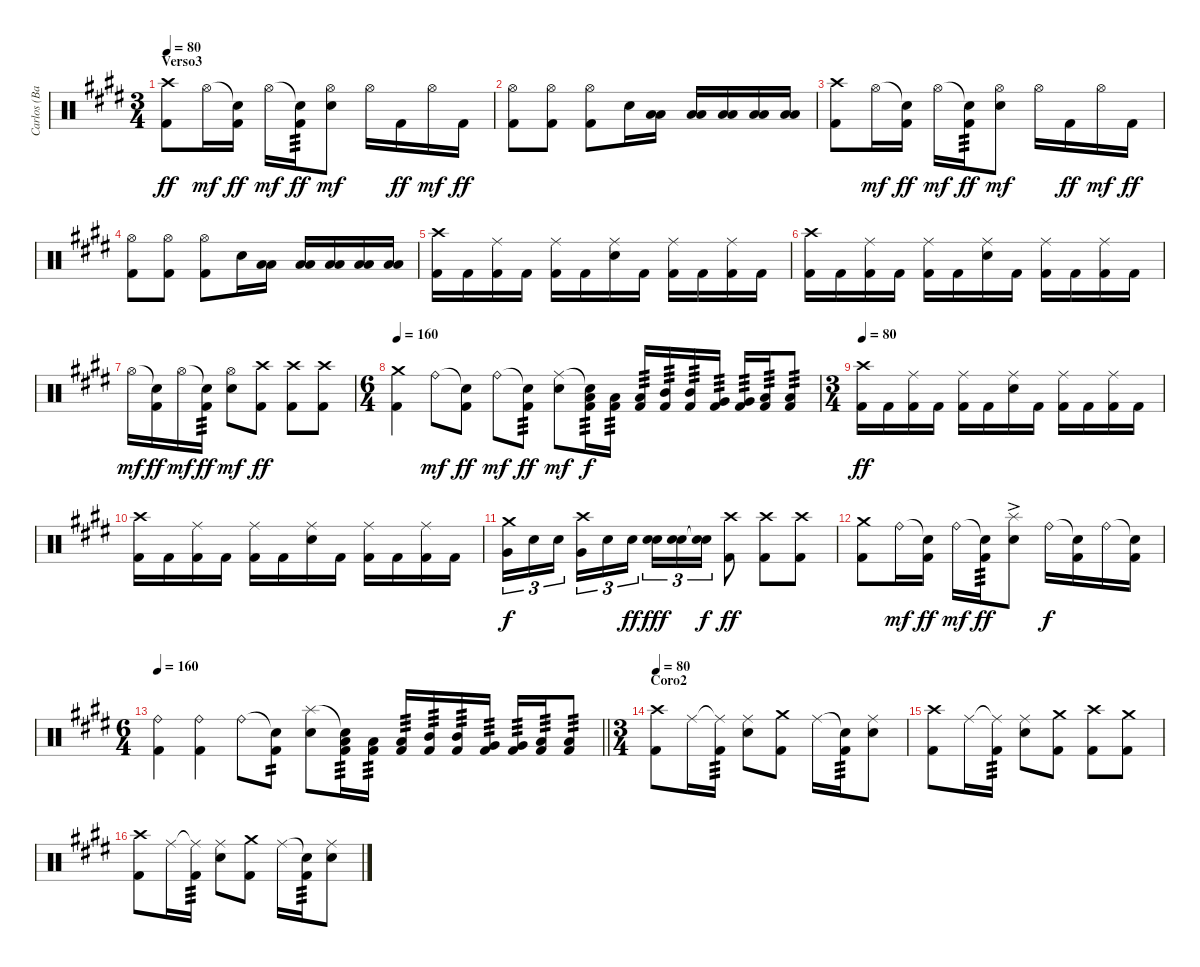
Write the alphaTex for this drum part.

\track ("Carlos (Batería)" "Carlos (Ba") {instrument percussion}
\staff
\articulation defaults
\ts (3 4)
\section ("" "Verso3")
\tempo 80
\clef neutral
\ks c#minor
("Crash high (hit)" "Kick (hit) 2").8{dy ff} "Hi-Hat (open)".16{dy mf} ("Snare (hit)"{t} "Kick (hit) 2").16{dy ff} "Hi-Hat (open)".16{dy mf} ("Snare (hit)"{t} "Kick (hit) 2").16{tp 3 dy ff} ("Hi-Hat (open)" "Snare (hit) 2").8{dy mf} "Hi-Hat (open)".16 "Kick (hit) 2".16{dy ff} "Hi-Hat (open)".16{dy mf} "Kick (hit) 2".16{dy ff} |
("Hi-Hat (open)" "Kick (hit) 2").8 ("Hi-Hat (open)" "Kick (hit) 2").8 ("Hi-Hat (open)" "Kick (hit) 2").8 "Snare (hit) 2".16 ("Low Floor Tom (hit)" "Low Tom (hit)").16 ("Low Floor Tom (hit)" "Low Tom (hit)").16 ("Low Floor Tom (hit)" "Low Tom (hit)").16 ("Low Floor Tom (hit)" "Low Tom (hit)").16 ("Low Floor Tom (hit)" "Low Tom (hit)").16 |
("Crash high (hit)" "Kick (hit) 2").8 "Hi-Hat (open)".16{dy mf} ("Snare (hit)"{t} "Kick (hit) 2").16{dy ff} "Hi-Hat (open)".16{dy mf} ("Snare (hit)"{t} "Kick (hit) 2").16{tp 3 dy ff} ("Hi-Hat (open)" "Snare (hit) 2").8{dy mf} "Hi-Hat (open)".16 "Kick (hit) 2".16{dy ff} "Hi-Hat (open)".16{dy mf} "Kick (hit) 2".16{dy ff} |
("Hi-Hat (open)" "Kick (hit) 2").8 ("Hi-Hat (open)" "Kick (hit) 2").8 ("Hi-Hat (open)" "Kick (hit) 2").8 "Snare (hit) 2".16 ("Low Floor Tom (hit)" "Low Tom (hit)").16 ("Low Floor Tom (hit)" "Low Tom (hit)").16 ("Low Floor Tom (hit)" "Low Tom (hit)").16 ("Low Floor Tom (hit)" "Low Tom (hit)").16 ("Low Floor Tom (hit)" "Low Tom (hit)").16 |
("Crash high (hit)" "Kick (hit) 2").16 "Kick (hit) 2".16 ("Ride (middle)" "Kick (hit) 2").16 "Kick (hit) 2".16 ("Ride (middle)" "Kick (hit) 2").16 "Kick (hit) 2".16 ("Ride (middle)" "Snare (hit) 2").16 "Kick (hit) 2".16 ("Ride (middle)" "Kick (hit) 2").16 "Kick (hit) 2".16 ("Ride (middle)" "Kick (hit) 2").16 "Kick (hit) 2".16 |
("Crash high (hit)" "Kick (hit) 2").16 "Kick (hit) 2".16 ("Ride (middle)" "Kick (hit) 2").16 "Kick (hit) 2".16 ("Ride (middle)" "Kick (hit) 2").16 "Kick (hit) 2".16 ("Ride (middle)" "Snare (hit) 2").16 "Kick (hit) 2".16 ("Ride (middle)" "Kick (hit) 2").16 "Kick (hit) 2".16 ("Ride (middle)" "Kick (hit) 2").16 "Kick (hit) 2".16 |
"Hi-Hat (open)".16{dy mf} ("Snare (hit)"{t} "Kick (hit) 2").16{dy ff} "Hi-Hat (open)".16{dy mf} ("Snare (hit)"{t} "Kick (hit) 2").16{tp 3 dy ff} ("Hi-Hat (open)" "Snare (hit) 2").8{dy mf} ("Crash high (hit)" "Kick (hit) 2").8{dy ff} ("Crash high (hit)" "Kick (hit) 2").8 ("Crash high (hit)" "Kick (hit) 2").8 |
\ts (6 4)
\tempo 160
("Crash medium (hit)" "Kick (hit) 2").4 "Ride (bell)".8{dy mf} ("Snare (hit)"{t} "Kick (hit) 2").8{dy ff} "Ride (bell)".8{dy mf} ("Snare (hit)"{t} "Kick (hit) 2").8{tp 3 dy ff} ("Ride (middle)" "Snare (hit) 2").8{dy mf} ("Snare (hit)"{t} "Low Tom (hit)" "Kick (hit) 2").16{tp 3 dy f} ("Low Tom (hit)" "Kick (hit) 2").16{tp 3} ("Low Tom (hit)" "Kick (hit) 2").16{tp 3} ("Mid Tom (hit)" "Kick (hit) 2").16{tp 3} ("Mid Tom (hit)" "Kick (hit) 2").16{tp 3} ("Very Low Tom (hit)" "Kick (hit) 2").16{tp 3} ("Very Low Tom (hit)" "Kick (hit) 2").16{tp 3} ("Low Floor Tom (hit)" "Kick (hit) 2").16{tp 3} ("Low Floor Tom (hit)" "Kick (hit) 2").8{tp 3} |
\ts (3 4)
\tempo 80
("Crash high (hit)" "Kick (hit) 2").16{dy ff} "Kick (hit) 2".16 ("Ride (middle)" "Kick (hit) 2").16 "Kick (hit) 2".16 ("Ride (middle)" "Kick (hit) 2").16 "Kick (hit) 2".16 ("Ride (middle)" "Snare (hit) 2").16 "Kick (hit) 2".16 ("Ride (middle)" "Kick (hit) 2").16 "Kick (hit) 2".16 ("Ride (middle)" "Kick (hit) 2").16 "Kick (hit) 2".16 |
("Crash high (hit)" "Kick (hit) 2").16 "Kick (hit) 2".16 ("Ride (middle)" "Kick (hit) 2").16 "Kick (hit) 2".16 ("Ride (middle)" "Kick (hit) 2").16 "Kick (hit) 2".16 ("Ride (middle)" "Snare (hit) 2").16 "Kick (hit) 2".16 ("Ride (middle)" "Kick (hit) 2").16 "Kick (hit) 2".16 ("Ride (middle)" "Kick (hit) 2").16 "Kick (hit) 2".16 |
("Crash medium (hit)" "Very Low Tom (hit)").16{tu (3 2) dy f} "Snare (hit) 2".16{tu (3 2)} "Snare (hit) 2".16{tu (3 2) beam splitsecondary} ("Crash high (hit)" "Very Low Tom (hit)").16{tu (3 2)} "Snare (hit) 2".16{tu (3 2)} "Snare (hit) 2".16{tu (3 2) dy ff} ("Snare (hit) 2" "Snare (hit) 2").16{tu (3 2) dy fff} ("Snare (hit) 2" "Snare (hit) 2").16{tu (3 2)} ("Snare (hit)"{t} "Snare (hit)"{t}).16{tu (3 2) dy f} ("Crash high (hit)" "Kick (hit) 2").8{dy ff} ("Crash high (hit)" "Kick (hit) 2").8 ("Crash high (hit)" "Kick (hit) 2").8 |
("Crash medium (hit)" "Kick (hit) 2").8 "Ride (bell)".16{dy mf} ("Snare (hit)"{t} "Kick (hit) 2").16{dy ff} "Ride (bell)".16{dy mf} ("Snare (hit)"{t} "Kick (hit) 2").16{tp 3 dy ff} ("Splash (hit)" "Snare (hit) 2"{ac}).8 "Ride (bell)".16{dy f} ("Snare (hit)"{t} "Kick (hit) 2").16 "Ride (bell)".16 ("Snare (hit)"{t} "Kick (hit) 2").16 |
\ts (6 4)
\tempo 160
\barLineRight lightlight
("Ride (bell)" "Kick (hit) 2").4 ("Ride (bell)" "Kick (hit) 2").4 "Ride (bell)".8 ("Snare (hit)"{t} "Kick (hit) 2").8{tp 2} ("Splash (hit)" "Snare (hit) 2").8 ("Snare (hit)"{t} "Low Tom (hit)" "Kick (hit) 2").16{tp 3} ("Low Tom (hit)" "Kick (hit) 2").16{tp 3} ("Low Tom (hit)" "Kick (hit) 2").16{tp 3} ("Mid Tom (hit)" "Kick (hit) 2").16{tp 3} ("Mid Tom (hit)" "Kick (hit) 2").16{tp 3} ("Very Low Tom (hit)" "Kick (hit) 2").16{tp 3} ("Very Low Tom (hit)" "Kick (hit) 2").16{tp 3} ("Low Floor Tom (hit)" "Kick (hit) 2").16{tp 3} ("Low Floor Tom (hit)" "Kick (hit) 2").8{tp 3} |
\ts (3 4)
\section ("" "Coro2")
\tempo 80
("Crash high (hit)" "Kick (hit) 2").8 "Ride (middle)".16 ("Ride (middle)"{t} "Kick (hit) 2").16{tp 3} ("Ride (middle)" "Snare (hit) 2").8 ("Crash medium (hit)" "Kick (hit) 2").8 "Ride (middle)".16 ("Snare (hit)"{t} "Kick (hit) 2").16{tp 3} ("Ride (middle)" "Snare (hit) 2").8 |
("Crash high (hit)" "Kick (hit) 2").8 "Ride (middle)".16 ("Ride (middle)"{t} "Kick (hit) 2").16{tp 3} ("Ride (middle)" "Snare (hit) 2").8 ("Crash medium (hit)" "Kick (hit) 2").8 ("Crash high (hit)" "Kick (hit) 2").8 ("Crash medium (hit)" "Kick (hit) 2").8 |
("Crash high (hit)" "Kick (hit) 2").8 "Ride (middle)".16 ("Ride (middle)"{t} "Kick (hit) 2").16{tp 3} ("Ride (middle)" "Snare (hit) 2").8 ("Crash medium (hit)" "Kick (hit) 2").8 "Ride (middle)".16 ("Snare (hit)"{t} "Kick (hit) 2").16{tp 3} ("Ride (middle)" "Snare (hit) 2").8
